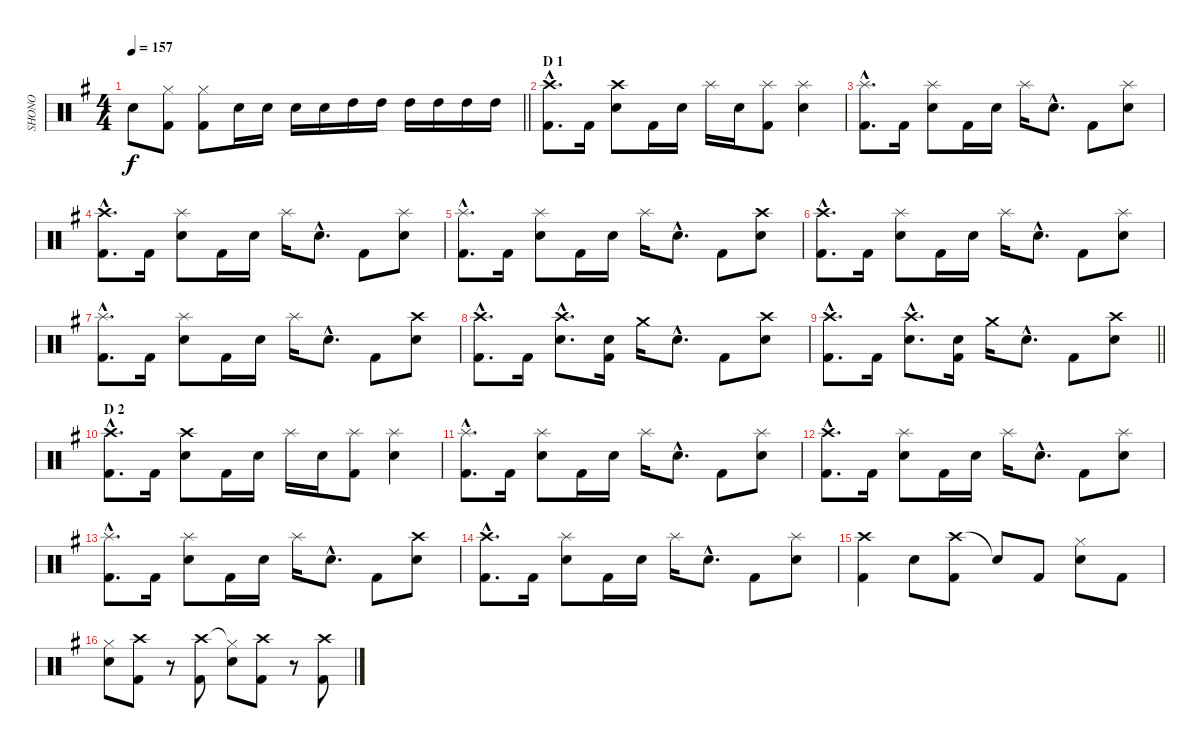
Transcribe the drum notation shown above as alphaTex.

\track ("SHONO" "SHONO") {instrument percussion}
\staff {score}
\articulation defaults
\ts (4 4)
\tempo 157
\clef neutral
\barLineRight lightlight
\ks g "Snare (hit)"{t}.8{dy f}
("Hi-Hat (closed)" "Kick (hit) 2").8 ("Hi-Hat (closed)" "Kick (hit) 2").8 "Snare (hit) 2".16 "Snare (hit) 2".16 "Snare (hit) 2".16 "Snare (hit) 2".16 "High Tom (hit)".16 "High Tom (hit)".16 "High Tom (hit)".16 "High Tom (hit)".16 "High Tom (hit)".16 "High Tom (hit)".16 |
\section ("" "D 1")
("Crash high (hit)"{hac} "Kick (hit) 2"{hac}).8{d} "Kick (hit) 2".16 ("Crash high (hit)" "Snare (hit) 2").8 "Kick (hit) 2".16 "Snare (hit) 2".16 "Splash (hit)".16 "Snare (hit) 2".16 ("Splash (hit)" "Kick (hit) 2").8 ("Splash (hit)" "Snare (hit) 2").4 |
("Splash (hit)"{hac} "Kick (hit) 2"{hac}).8{d} "Kick (hit) 2".16 ("Splash (hit)" "Snare (hit) 2").8 "Kick (hit) 2".16 "Snare (hit) 2".16 "Splash (hit)".16 "Snare (hit) 2"{hac}.8{d} "Kick (hit) 2".8 ("Splash (hit)" "Snare (hit) 2").8 |
("Crash high (hit)"{hac} "Kick (hit) 2"{hac}).8{d} "Kick (hit) 2".16 ("Splash (hit)" "Snare (hit) 2").8 "Kick (hit) 2".16 "Snare (hit) 2".16 "Splash (hit)".16 "Snare (hit) 2"{hac}.8{d} "Kick (hit) 2".8 ("Splash (hit)" "Snare (hit) 2").8 |
("Splash (hit)"{hac} "Kick (hit) 2"{hac}).8{d} "Kick (hit) 2".16 ("Splash (hit)" "Snare (hit) 2").8 "Kick (hit) 2".16 "Snare (hit) 2".16 "Splash (hit)".16 "Snare (hit) 2"{hac}.8{d} "Kick (hit) 2".8 ("Crash high (hit)" "Snare (hit) 2").8 |
("Crash high (hit)"{hac} "Kick (hit) 2"{hac}).8{d} "Kick (hit) 2".16 ("Splash (hit)" "Snare (hit) 2").8 "Kick (hit) 2".16 "Snare (hit) 2".16 "Splash (hit)".16 "Snare (hit) 2"{hac}.8{d} "Kick (hit) 2".8 ("Splash (hit)" "Snare (hit) 2").8 |
("Splash (hit)"{hac} "Kick (hit) 2"{hac}).8{d} "Kick (hit) 2".16 ("Splash (hit)" "Snare (hit) 2").8 "Kick (hit) 2".16 "Snare (hit) 2".16 "Splash (hit)".16 "Snare (hit) 2"{hac}.8{d} "Kick (hit) 2".8 ("Crash high (hit)" "Snare (hit) 2").8 |
("Crash high (hit)"{hac} "Kick (hit) 2"{hac}).8{d} "Kick (hit) 2".16 ("Crash high (hit)"{hac} "Snare (hit) 2"{hac}).8{d} ("Kick (hit) 2" "Snare (hit) 2").16 "Crash medium (hit)".16 "Snare (hit) 2"{hac}.8{d} "Kick (hit) 2".8 ("Crash high (hit)" "Snare (hit) 2").8 |
\barLineRight lightlight
("Crash high (hit)"{hac} "Kick (hit) 2"{hac}).8{d} "Kick (hit) 2".16 ("Crash high (hit)"{hac} "Snare (hit) 2"{hac}).8{d} ("Kick (hit) 2" "Snare (hit) 2").16 "Crash medium (hit)".16 "Snare (hit) 2"{hac}.8{d} "Kick (hit) 2".8 ("Crash high (hit)" "Snare (hit) 2").8 |
\section ("" "D 2")
("Crash high (hit)"{hac} "Kick (hit) 2"{hac}).8{d} "Kick (hit) 2".16 ("Crash high (hit)" "Snare (hit) 2").8 "Kick (hit) 2".16 "Snare (hit) 2".16 "Splash (hit)".16 "Snare (hit) 2".16 ("Splash (hit)" "Kick (hit) 2").8 ("Splash (hit)" "Snare (hit) 2").4 |
("Splash (hit)"{hac} "Kick (hit) 2"{hac}).8{d} "Kick (hit) 2".16 ("Splash (hit)" "Snare (hit) 2").8 "Kick (hit) 2".16 "Snare (hit) 2".16 "Splash (hit)".16 "Snare (hit) 2"{hac}.8{d} "Kick (hit) 2".8 ("Splash (hit)" "Snare (hit) 2").8 |
("Crash high (hit)"{hac} "Kick (hit) 2"{hac}).8{d} "Kick (hit) 2".16 ("Splash (hit)" "Snare (hit) 2").8 "Kick (hit) 2".16 "Snare (hit) 2".16 "Splash (hit)".16 "Snare (hit) 2"{hac}.8{d} "Kick (hit) 2".8 ("Splash (hit)" "Snare (hit) 2").8 |
("Splash (hit)"{hac} "Kick (hit) 2"{hac}).8{d} "Kick (hit) 2".16 ("Splash (hit)" "Snare (hit) 2").8 "Kick (hit) 2".16 "Snare (hit) 2".16 "Splash (hit)".16 "Snare (hit) 2"{hac}.8{d} "Kick (hit) 2".8 ("Crash high (hit)" "Snare (hit) 2").8 |
("Crash high (hit)"{hac} "Kick (hit) 2"{hac}).8{d} "Kick (hit) 2".16 ("Splash (hit)" "Snare (hit) 2").8 "Kick (hit) 2".16 "Snare (hit) 2".16 "Splash (hit)".16 "Snare (hit) 2"{hac}.8{d} "Kick (hit) 2".8 ("Splash (hit)" "Snare (hit) 2").8 |
("Crash high (hit)" "Kick (hit) 2").4 "Snare (hit) 2".8 ("Crash high (hit)" "Kick (hit) 2").8 "Snare (hit)"{t}.8 "Kick (hit) 2".8 ("Hi-Hat (closed)" "Snare (hit) 2").8 "Kick (hit) 2".8 |
("Hi-Hat (closed)" "Snare (hit) 2").8 ("Crash high (hit)" "Kick (hit) 2").8 r.8 ("Crash high (hit)" "Kick (hit) 2").8 ("Hi-Hat (closed)"{t} "Snare (hit) 2").8 ("Crash high (hit)" "Kick (hit) 2").8 r.8 ("Crash high (hit)" "Kick (hit) 2").8
